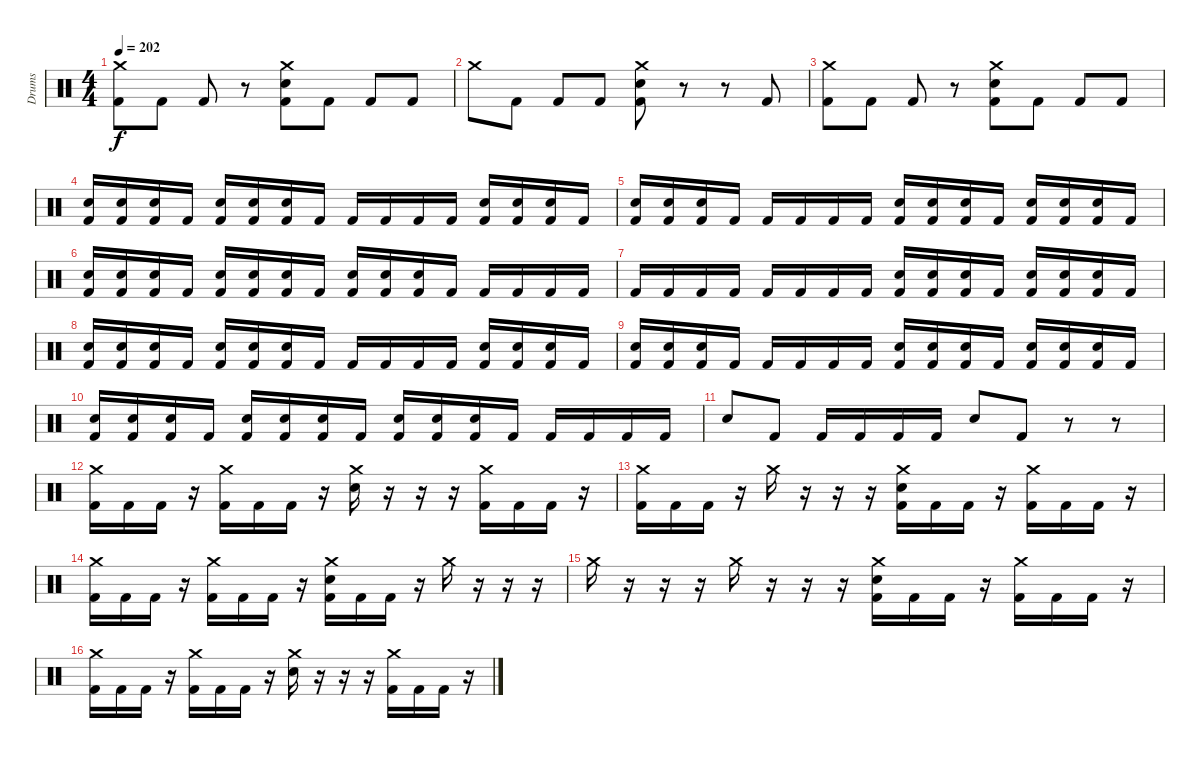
\track ("Drums" "Drums") {instrument percussion}
\staff {score}
\articulation defaults
\ts (4 4)
\tempo 202
\clef neutral
\ks c
("Crash medium (hit)" "Kick (hit) 2").8{dy f} "Kick (hit) 2".8 "Kick (hit) 2".8 r.8 ("Crash medium (hit)" "Electric Snare (hit)" "Kick (hit) 2").8 "Kick (hit) 2".8 "Kick (hit) 2".8 "Kick (hit) 2".8 |
"Crash medium (hit)".8 "Kick (hit) 2".8 "Kick (hit) 2".8 "Kick (hit) 2".8 ("Crash medium (hit)" "Electric Snare (hit)" "Kick (hit) 2").8 r.8 r.8 "Kick (hit) 2".8 |
("Crash medium (hit)" "Kick (hit) 2").8 "Kick (hit) 2".8 "Kick (hit) 2".8 r.8 ("Crash medium (hit)" "Electric Snare (hit)" "Kick (hit) 2").8 "Kick (hit) 2".8 "Kick (hit) 2".8 "Kick (hit) 2".8 |
("Electric Snare (hit)" "Kick (hit) 2").16 ("Electric Snare (hit)" "Kick (hit) 2").16 ("Electric Snare (hit)" "Kick (hit) 2").16 "Kick (hit) 2".16 ("Electric Snare (hit)" "Kick (hit) 2").16 ("Electric Snare (hit)" "Kick (hit) 2").16 ("Electric Snare (hit)" "Kick (hit) 2").16 "Kick (hit) 2".16 "Kick (hit) 2".16 "Kick (hit) 2".16 "Kick (hit) 2".16 "Kick (hit) 2".16 ("Electric Snare (hit)" "Kick (hit) 2").16 ("Electric Snare (hit)" "Kick (hit) 2").16 ("Electric Snare (hit)" "Kick (hit) 2").16 "Kick (hit) 2".16 |
("Electric Snare (hit)" "Kick (hit) 2").16 ("Electric Snare (hit)" "Kick (hit) 2").16 ("Electric Snare (hit)" "Kick (hit) 2").16 "Kick (hit) 2".16 "Kick (hit) 2".16 "Kick (hit) 2".16 "Kick (hit) 2".16 "Kick (hit) 2".16 ("Electric Snare (hit)" "Kick (hit) 2").16 ("Electric Snare (hit)" "Kick (hit) 2").16 ("Electric Snare (hit)" "Kick (hit) 2").16 "Kick (hit) 2".16 ("Electric Snare (hit)" "Kick (hit) 2").16 ("Electric Snare (hit)" "Kick (hit) 2").16 ("Electric Snare (hit)" "Kick (hit) 2").16 "Kick (hit) 2".16 |
("Electric Snare (hit)" "Kick (hit) 2").16 ("Electric Snare (hit)" "Kick (hit) 2").16 ("Electric Snare (hit)" "Kick (hit) 2").16 "Kick (hit) 2".16 ("Electric Snare (hit)" "Kick (hit) 2").16 ("Electric Snare (hit)" "Kick (hit) 2").16 ("Electric Snare (hit)" "Kick (hit) 2").16 "Kick (hit) 2".16 ("Electric Snare (hit)" "Kick (hit) 2").16 ("Electric Snare (hit)" "Kick (hit) 2").16 ("Electric Snare (hit)" "Kick (hit) 2").16 "Kick (hit) 2".16 "Kick (hit) 2".16 "Kick (hit) 2".16 "Kick (hit) 2".16 "Kick (hit) 2".16 |
"Kick (hit) 2".16 "Kick (hit) 2".16 "Kick (hit) 2".16 "Kick (hit) 2".16 "Kick (hit) 2".16 "Kick (hit) 2".16 "Kick (hit) 2".16 "Kick (hit) 2".16 ("Electric Snare (hit)" "Kick (hit) 2").16 ("Electric Snare (hit)" "Kick (hit) 2").16 ("Electric Snare (hit)" "Kick (hit) 2").16 "Kick (hit) 2".16 ("Electric Snare (hit)" "Kick (hit) 2").16 ("Electric Snare (hit)" "Kick (hit) 2").16 ("Electric Snare (hit)" "Kick (hit) 2").16 "Kick (hit) 2".16 |
("Electric Snare (hit)" "Kick (hit) 2").16 ("Electric Snare (hit)" "Kick (hit) 2").16 ("Electric Snare (hit)" "Kick (hit) 2").16 "Kick (hit) 2".16 ("Electric Snare (hit)" "Kick (hit) 2").16 ("Electric Snare (hit)" "Kick (hit) 2").16 ("Electric Snare (hit)" "Kick (hit) 2").16 "Kick (hit) 2".16 "Kick (hit) 2".16 "Kick (hit) 2".16 "Kick (hit) 2".16 "Kick (hit) 2".16 ("Electric Snare (hit)" "Kick (hit) 2").16 ("Electric Snare (hit)" "Kick (hit) 2").16 ("Electric Snare (hit)" "Kick (hit) 2").16 "Kick (hit) 2".16 |
("Electric Snare (hit)" "Kick (hit) 2").16 ("Electric Snare (hit)" "Kick (hit) 2").16 ("Electric Snare (hit)" "Kick (hit) 2").16 "Kick (hit) 2".16 "Kick (hit) 2".16 "Kick (hit) 2".16 "Kick (hit) 2".16 "Kick (hit) 2".16 ("Electric Snare (hit)" "Kick (hit) 2").16 ("Electric Snare (hit)" "Kick (hit) 2").16 ("Electric Snare (hit)" "Kick (hit) 2").16 "Kick (hit) 2".16 ("Electric Snare (hit)" "Kick (hit) 2").16 ("Electric Snare (hit)" "Kick (hit) 2").16 ("Electric Snare (hit)" "Kick (hit) 2").16 "Kick (hit) 2".16 |
("Electric Snare (hit)" "Kick (hit) 2").16 ("Electric Snare (hit)" "Kick (hit) 2").16 ("Electric Snare (hit)" "Kick (hit) 2").16 "Kick (hit) 2".16 ("Electric Snare (hit)" "Kick (hit) 2").16 ("Electric Snare (hit)" "Kick (hit) 2").16 ("Electric Snare (hit)" "Kick (hit) 2").16 "Kick (hit) 2".16 ("Electric Snare (hit)" "Kick (hit) 2").16 ("Electric Snare (hit)" "Kick (hit) 2").16 ("Electric Snare (hit)" "Kick (hit) 2").16 "Kick (hit) 2".16 "Kick (hit) 2".16 "Kick (hit) 2".16 "Kick (hit) 2".16 "Kick (hit) 2".16 |
"Electric Snare (hit)".8 "Kick (hit) 2".8 "Kick (hit) 2".16 "Kick (hit) 2".16 "Kick (hit) 2".16 "Kick (hit) 2".16 "Electric Snare (hit)".8 "Kick (hit) 2".8 r.8 r.8 |
("Crash medium (hit)" "Kick (hit) 2").16 "Kick (hit) 2".16 "Kick (hit) 2".16 r.16 ("Crash medium (hit)" "Kick (hit) 2").16 "Kick (hit) 2".16 "Kick (hit) 2".16 r.16 ("Crash medium (hit)" "Electric Snare (hit)").16 r.16 r.16 r.16 ("Crash medium (hit)" "Kick (hit) 2").16 "Kick (hit) 2".16 "Kick (hit) 2".16 r.16 |
("Crash medium (hit)" "Kick (hit) 2").16 "Kick (hit) 2".16 "Kick (hit) 2".16 r.16 "Crash medium (hit)".16 r.16 r.16 r.16 ("Crash medium (hit)" "Electric Snare (hit)" "Kick (hit) 2").16 "Kick (hit) 2".16 "Kick (hit) 2".16 r.16 ("Crash medium (hit)" "Kick (hit) 2").16 "Kick (hit) 2".16 "Kick (hit) 2".16 r.16 |
("Crash medium (hit)" "Kick (hit) 2").16 "Kick (hit) 2".16 "Kick (hit) 2".16 r.16 ("Crash medium (hit)" "Kick (hit) 2").16 "Kick (hit) 2".16 "Kick (hit) 2".16 r.16 ("Crash medium (hit)" "Electric Snare (hit)" "Kick (hit) 2").16 "Kick (hit) 2".16 "Kick (hit) 2".16 r.16 "Crash medium (hit)".16 r.16 r.16 r.16 |
"Crash medium (hit)".16 r.16 r.16 r.16 "Crash medium (hit)".16 r.16 r.16 r.16 ("Crash medium (hit)" "Electric Snare (hit)" "Kick (hit) 2").16 "Kick (hit) 2".16 "Kick (hit) 2".16 r.16 ("Crash medium (hit)" "Kick (hit) 2").16 "Kick (hit) 2".16 "Kick (hit) 2".16 r.16 |
("Crash medium (hit)" "Kick (hit) 2").16 "Kick (hit) 2".16 "Kick (hit) 2".16 r.16 ("Crash medium (hit)" "Kick (hit) 2").16 "Kick (hit) 2".16 "Kick (hit) 2".16 r.16 ("Crash medium (hit)" "Electric Snare (hit)").16 r.16 r.16 r.16 ("Crash medium (hit)" "Kick (hit) 2").16 "Kick (hit) 2".16 "Kick (hit) 2".16 r.16
